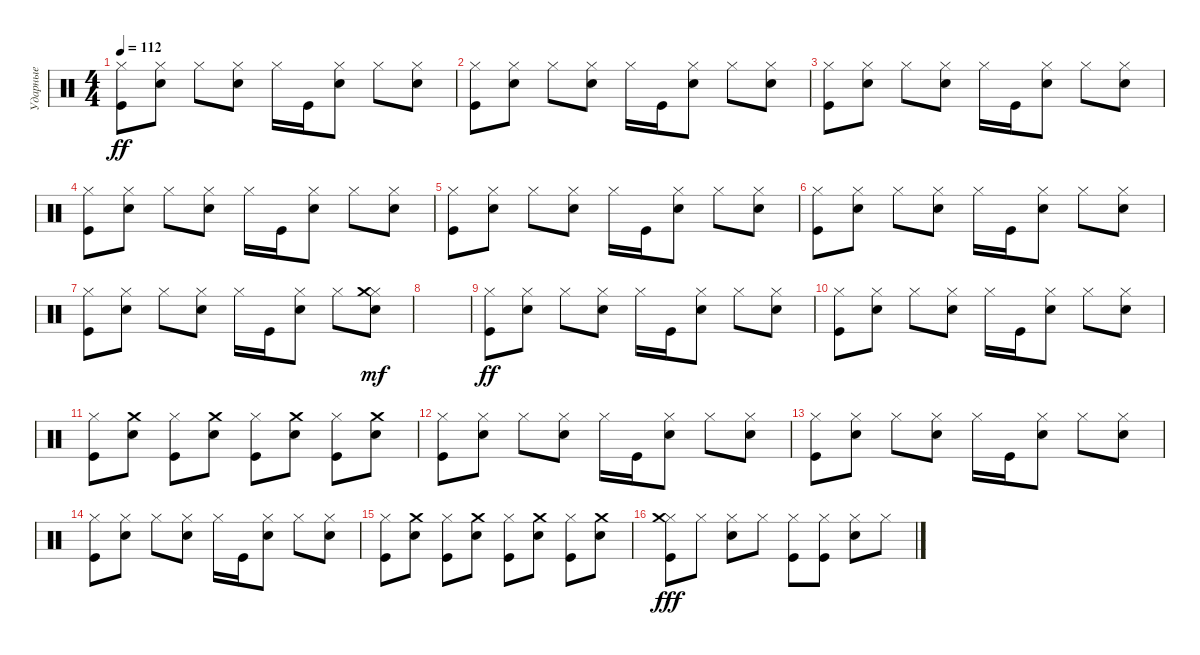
\track ("Ударные" "Ударные") {instrument percussion}
\staff {score}
\articulation defaults
\ts (4 4)
\tempo 112
\clef neutral
\ks c
("Hi-Hat (closed)" "Kick (hit)").8{dy ff} ("Hi-Hat (closed)" "Snare (hit) 2").8 "Hi-Hat (closed)".8 ("Hi-Hat (closed)" "Snare (hit) 2").8 "Hi-Hat (closed)".16 "Kick (hit)".16 ("Hi-Hat (closed)" "Snare (hit) 2").8 "Hi-Hat (closed)".8 ("Hi-Hat (closed)" "Snare (hit) 2").8 |
("Hi-Hat (closed)" "Kick (hit)").8 ("Hi-Hat (closed)" "Snare (hit) 2").8 "Hi-Hat (closed)".8 ("Hi-Hat (closed)" "Snare (hit) 2").8 "Hi-Hat (closed)".16 "Kick (hit)".16 ("Hi-Hat (closed)" "Snare (hit) 2").8 "Hi-Hat (closed)".8 ("Hi-Hat (closed)" "Snare (hit) 2").8 |
("Hi-Hat (closed)" "Kick (hit)").8 ("Hi-Hat (closed)" "Snare (hit) 2").8 "Hi-Hat (closed)".8 ("Hi-Hat (closed)" "Snare (hit) 2").8 "Hi-Hat (closed)".16 "Kick (hit)".16 ("Hi-Hat (closed)" "Snare (hit) 2").8 "Hi-Hat (closed)".8 ("Hi-Hat (closed)" "Snare (hit) 2").8 |
("Hi-Hat (closed)" "Kick (hit)").8 ("Hi-Hat (closed)" "Snare (hit) 2").8 "Hi-Hat (closed)".8 ("Hi-Hat (closed)" "Snare (hit) 2").8 "Hi-Hat (closed)".16 "Kick (hit)".16 ("Hi-Hat (closed)" "Snare (hit) 2").8 "Hi-Hat (closed)".8 ("Hi-Hat (closed)" "Snare (hit) 2").8 |
("Hi-Hat (closed)" "Kick (hit)").8 ("Hi-Hat (closed)" "Snare (hit) 2").8 "Hi-Hat (closed)".8 ("Hi-Hat (closed)" "Snare (hit) 2").8 "Hi-Hat (closed)".16 "Kick (hit)".16 ("Hi-Hat (closed)" "Snare (hit) 2").8 "Hi-Hat (closed)".8 ("Hi-Hat (closed)" "Snare (hit) 2").8 |
("Hi-Hat (closed)" "Kick (hit)").8 ("Hi-Hat (closed)" "Snare (hit) 2").8 "Hi-Hat (closed)".8 ("Hi-Hat (closed)" "Snare (hit) 2").8 "Hi-Hat (closed)".16 "Kick (hit)".16 ("Hi-Hat (closed)" "Snare (hit) 2").8 "Hi-Hat (closed)".8 ("Hi-Hat (closed)" "Snare (hit) 2").8 |
("Hi-Hat (closed)" "Kick (hit)").8 ("Hi-Hat (closed)" "Snare (hit) 2").8 "Hi-Hat (closed)".8 ("Hi-Hat (closed)" "Snare (hit) 2").8 "Hi-Hat (closed)".16 "Kick (hit)".16 ("Hi-Hat (closed)" "Snare (hit) 2").8 "Hi-Hat (closed)".8 ("Hi-Hat (closed)" "Snare (hit) 2" "Crash medium (hit)").8{dy mf} |
|
("Hi-Hat (closed)" "Kick (hit)").8{dy ff} ("Hi-Hat (closed)" "Snare (hit) 2").8 "Hi-Hat (closed)".8 ("Hi-Hat (closed)" "Snare (hit) 2").8 "Hi-Hat (closed)".16 "Kick (hit)".16 ("Hi-Hat (closed)" "Snare (hit) 2").8 "Hi-Hat (closed)".8 ("Hi-Hat (closed)" "Snare (hit) 2").8 |
("Hi-Hat (closed)" "Kick (hit)").8 ("Hi-Hat (closed)" "Snare (hit) 2").8 "Hi-Hat (closed)".8 ("Hi-Hat (closed)" "Snare (hit) 2").8 "Hi-Hat (closed)".16 "Kick (hit)".16 ("Hi-Hat (closed)" "Snare (hit) 2").8 "Hi-Hat (closed)".8 ("Hi-Hat (closed)" "Snare (hit) 2").8 |
("Hi-Hat (closed)" "Kick (hit)").8 ("Crash medium (hit)" "Snare (hit) 2").8 ("Hi-Hat (closed)" "Kick (hit)").8 ("Crash medium (hit)" "Snare (hit) 2").8 ("Hi-Hat (closed)" "Kick (hit)").8 ("Crash medium (hit)" "Snare (hit) 2").8 ("Hi-Hat (closed)" "Kick (hit)").8 ("Crash medium (hit)" "Snare (hit) 2").8 |
("Hi-Hat (closed)" "Kick (hit)").8 ("Hi-Hat (closed)" "Snare (hit) 2").8 "Hi-Hat (closed)".8 ("Hi-Hat (closed)" "Snare (hit) 2").8 "Hi-Hat (closed)".16 "Kick (hit)".16 ("Hi-Hat (closed)" "Snare (hit) 2").8 "Hi-Hat (closed)".8 ("Hi-Hat (closed)" "Snare (hit) 2").8 |
("Hi-Hat (closed)" "Kick (hit)").8 ("Hi-Hat (closed)" "Snare (hit) 2").8 "Hi-Hat (closed)".8 ("Hi-Hat (closed)" "Snare (hit) 2").8 "Hi-Hat (closed)".16 "Kick (hit)".16 ("Hi-Hat (closed)" "Snare (hit) 2").8 "Hi-Hat (closed)".8 ("Hi-Hat (closed)" "Snare (hit) 2").8 |
("Hi-Hat (closed)" "Kick (hit)").8 ("Hi-Hat (closed)" "Snare (hit) 2").8 "Hi-Hat (closed)".8 ("Hi-Hat (closed)" "Snare (hit) 2").8 "Hi-Hat (closed)".16 "Kick (hit)".16 ("Hi-Hat (closed)" "Snare (hit) 2").8 "Hi-Hat (closed)".8 ("Hi-Hat (closed)" "Snare (hit) 2").8 |
("Hi-Hat (closed)" "Kick (hit)").8 ("Crash medium (hit)" "Snare (hit) 2").8 ("Hi-Hat (closed)" "Kick (hit)").8 ("Crash medium (hit)" "Snare (hit) 2").8 ("Hi-Hat (closed)" "Kick (hit)").8 ("Crash medium (hit)" "Snare (hit) 2").8 ("Hi-Hat (closed)" "Kick (hit)").8 ("Crash medium (hit)" "Snare (hit) 2").8 |
("Hi-Hat (closed)" "Kick (hit)" "Crash medium (hit)").8{dy fff} "Hi-Hat (closed)".8 ("Hi-Hat (closed)" "Snare (hit) 2").8 "Hi-Hat (closed)".8 ("Hi-Hat (closed)" "Kick (hit)").8 ("Hi-Hat (closed)" "Kick (hit)").8 ("Hi-Hat (closed)" "Snare (hit) 2").8 "Hi-Hat (closed)".8
